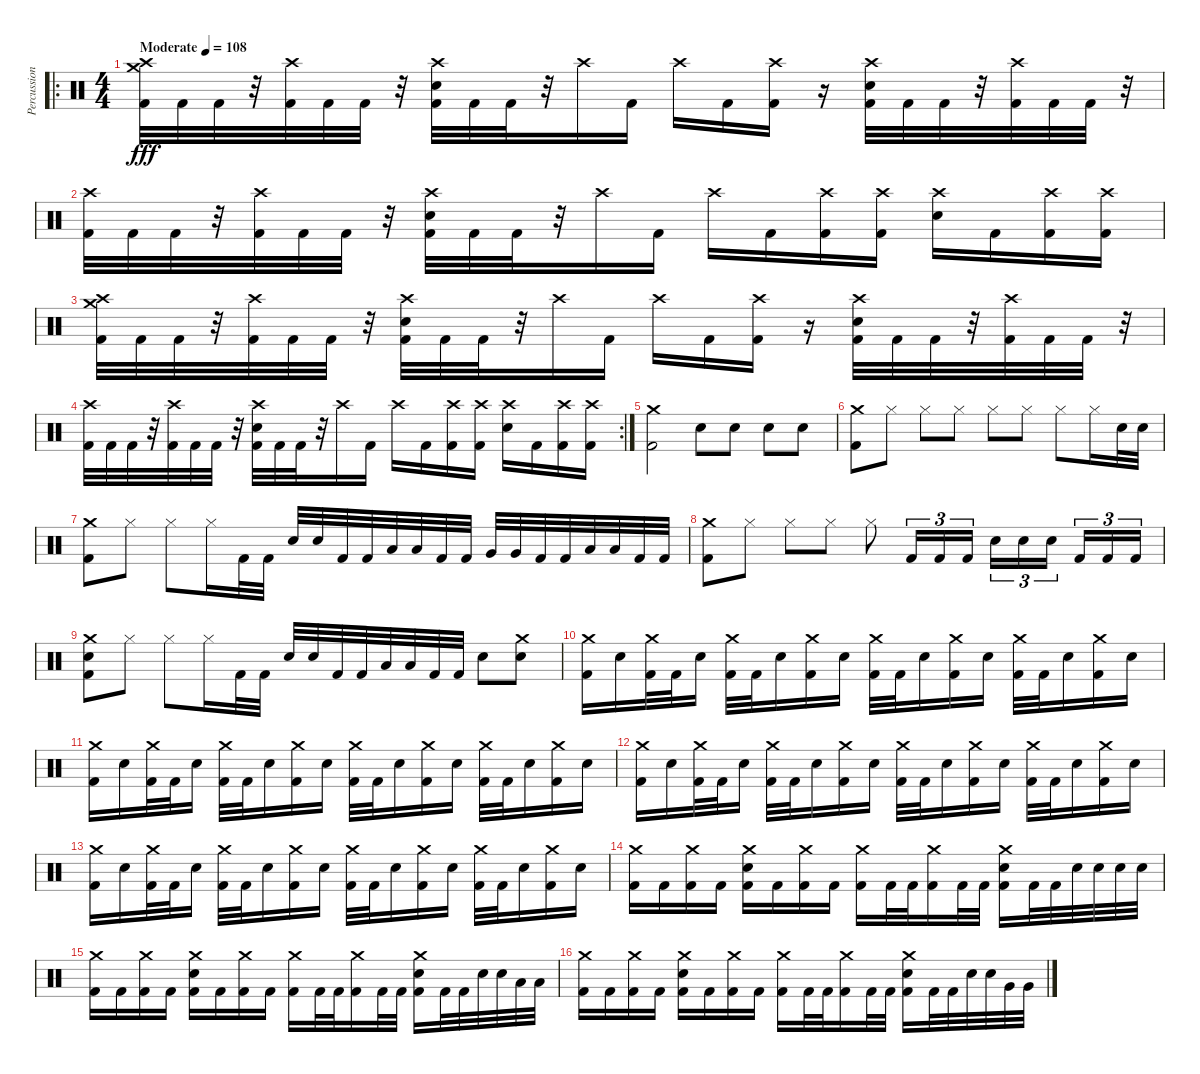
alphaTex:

\track ("Percussion" "Percussion") {instrument percussion}
\staff {score}
\articulation defaults
\ro
\ts (4 4)
\tempo (108 "Moderate")
\clef neutral
\ks c
("Crash medium (hit)" "Crash high (hit)" "Kick (hit) 2").32{dy fff} "Kick (hit) 2".32 "Kick (hit) 2".32 r.32 ("Crash high (hit)" "Kick (hit) 2").32 "Kick (hit) 2".32 "Kick (hit) 2".32 r.32 ("Crash high (hit)" "Electric Snare (hit)" "Kick (hit) 2").32 "Kick (hit) 2".32 "Kick (hit) 2".32 r.32 "Crash high (hit)".16 "Kick (hit) 2".16 "Crash high (hit)".16 "Kick (hit) 2".16 ("Crash high (hit)" "Kick (hit) 2").16 r.16 ("Crash high (hit)" "Electric Snare (hit)" "Kick (hit) 2").32 "Kick (hit) 2".32 "Kick (hit) 2".32 r.32 ("Crash high (hit)" "Kick (hit) 2").32 "Kick (hit) 2".32 "Kick (hit) 2".32 r.32 |
("Crash high (hit)" "Kick (hit) 2").32 "Kick (hit) 2".32 "Kick (hit) 2".32 r.32 ("Crash high (hit)" "Kick (hit) 2").32 "Kick (hit) 2".32 "Kick (hit) 2".32 r.32 ("Crash high (hit)" "Electric Snare (hit)" "Kick (hit) 2").32 "Kick (hit) 2".32 "Kick (hit) 2".32 r.32 "Crash high (hit)".16 "Kick (hit) 2".16 "Crash high (hit)".16 "Kick (hit) 2".16 ("Crash high (hit)" "Kick (hit) 2").16 ("Crash high (hit)" "Kick (hit) 2").16 ("Crash high (hit)" "Electric Snare (hit)").16 "Kick (hit) 2".16 ("Crash high (hit)" "Kick (hit) 2").16 ("Crash high (hit)" "Kick (hit) 2").16 |
("Crash medium (hit)" "Crash high (hit)" "Kick (hit) 2").32 "Kick (hit) 2".32 "Kick (hit) 2".32 r.32 ("Crash high (hit)" "Kick (hit) 2").32 "Kick (hit) 2".32 "Kick (hit) 2".32 r.32 ("Crash high (hit)" "Electric Snare (hit)" "Kick (hit) 2").32 "Kick (hit) 2".32 "Kick (hit) 2".32 r.32 "Crash high (hit)".16 "Kick (hit) 2".16 "Crash high (hit)".16 "Kick (hit) 2".16 ("Crash high (hit)" "Kick (hit) 2").16 r.16 ("Crash high (hit)" "Electric Snare (hit)" "Kick (hit) 2").32 "Kick (hit) 2".32 "Kick (hit) 2".32 r.32 ("Crash high (hit)" "Kick (hit) 2").32 "Kick (hit) 2".32 "Kick (hit) 2".32 r.32 |
\rc 2
("Crash high (hit)" "Kick (hit) 2").32 "Kick (hit) 2".32 "Kick (hit) 2".32 r.32 ("Crash high (hit)" "Kick (hit) 2").32 "Kick (hit) 2".32 "Kick (hit) 2".32 r.32 ("Crash high (hit)" "Electric Snare (hit)" "Kick (hit) 2").32 "Kick (hit) 2".32 "Kick (hit) 2".32 r.32 "Crash high (hit)".16 "Kick (hit) 2".16 "Crash high (hit)".16 "Kick (hit) 2".16 ("Crash high (hit)" "Kick (hit) 2").16 ("Crash high (hit)" "Kick (hit) 2").16 ("Crash high (hit)" "Electric Snare (hit)").16 "Kick (hit) 2".16 ("Crash high (hit)" "Kick (hit) 2").16 ("Crash high (hit)" "Kick (hit) 2").16 |
("Crash medium (hit)" "Kick (hit) 2").2 "Electric Snare (hit)".8 "Electric Snare (hit)".8 "Electric Snare (hit)".8 "Electric Snare (hit)".8 |
("Crash medium (hit)" "Kick (hit) 2").8 "Hi-Hat (closed)".8 "Hi-Hat (closed)".8 "Hi-Hat (closed)".8 "Hi-Hat (closed)".8 "Hi-Hat (closed)".8 "Hi-Hat (closed)".8 "Hi-Hat (closed)".16 "Electric Snare (hit)".32 "Electric Snare (hit)".32 |
("Crash medium (hit)" "Kick (hit) 2").8 "Hi-Hat (closed)".8 "Hi-Hat (closed)".8 "Hi-Hat (closed)".16 "Kick (hit) 2".32 "Kick (hit) 2".32 "Electric Snare (hit)".32 "Electric Snare (hit)".32 "Kick (hit) 2".32 "Kick (hit) 2".32 "Low Tom (hit)".32 "Low Tom (hit)".32 "Kick (hit) 2".32 "Kick (hit) 2".32 "Very Low Tom (hit)".32 "Very Low Tom (hit)".32 "Kick (hit) 2".32 "Kick (hit) 2".32 "Low Floor Tom (hit)".32 "Low Floor Tom (hit)".32 "Kick (hit) 2".32 "Kick (hit) 2".32 |
("Crash medium (hit)" "Kick (hit) 2").8 "Hi-Hat (closed)".8 "Hi-Hat (closed)".8 "Hi-Hat (closed)".8 "Hi-Hat (closed)".8 "Kick (hit) 2".16{tu (3 2)} "Kick (hit) 2".16{tu (3 2)} "Kick (hit) 2".16{tu (3 2)} "Electric Snare (hit)".16{tu (3 2)} "Electric Snare (hit)".16{tu (3 2)} "Electric Snare (hit)".16{tu (3 2) beam splitsecondary} "Kick (hit) 2".16{tu (3 2)} "Kick (hit) 2".16{tu (3 2)} "Kick (hit) 2".16{tu (3 2)} |
("Crash medium (hit)" "Electric Snare (hit)" "Kick (hit) 2").8 "Hi-Hat (closed)".8 "Hi-Hat (closed)".8 "Hi-Hat (closed)".16 "Kick (hit) 2".32 "Kick (hit) 2".32 "Electric Snare (hit)".32 "Electric Snare (hit)".32 "Kick (hit) 2".32 "Kick (hit) 2".32 "Low Tom (hit)".32 "Low Tom (hit)".32 "Kick (hit) 2".32 "Kick (hit) 2".32 "Electric Snare (hit)".8 ("Crash medium (hit)" "Electric Snare (hit)").8 |
("Crash medium (hit)" "Kick (hit) 2").16 "Electric Snare (hit)".16 ("Crash medium (hit)" "Kick (hit) 2").32 "Kick (hit) 2".32 "Electric Snare (hit)".16 ("Crash medium (hit)" "Kick (hit) 2").32 "Kick (hit) 2".32 "Electric Snare (hit)".16 ("Crash medium (hit)" "Kick (hit) 2").16 "Electric Snare (hit)".16 ("Crash medium (hit)" "Kick (hit) 2").32 "Kick (hit) 2".32 "Electric Snare (hit)".16 ("Crash medium (hit)" "Kick (hit) 2").16 "Electric Snare (hit)".16 ("Crash medium (hit)" "Kick (hit) 2").32 "Kick (hit) 2".32 "Electric Snare (hit)".16 ("Crash medium (hit)" "Kick (hit) 2").16 "Electric Snare (hit)".16 |
("Crash medium (hit)" "Kick (hit) 2").16 "Electric Snare (hit)".16 ("Crash medium (hit)" "Kick (hit) 2").32 "Kick (hit) 2".32 "Electric Snare (hit)".16 ("Crash medium (hit)" "Kick (hit) 2").32 "Kick (hit) 2".32 "Electric Snare (hit)".16 ("Crash medium (hit)" "Kick (hit) 2").16 "Electric Snare (hit)".16 ("Crash medium (hit)" "Kick (hit) 2").32 "Kick (hit) 2".32 "Electric Snare (hit)".16 ("Crash medium (hit)" "Kick (hit) 2").16 "Electric Snare (hit)".16 ("Crash medium (hit)" "Kick (hit) 2").32 "Kick (hit) 2".32 "Electric Snare (hit)".16 ("Crash medium (hit)" "Kick (hit) 2").16 "Electric Snare (hit)".16 |
("Crash medium (hit)" "Kick (hit) 2").16 "Electric Snare (hit)".16 ("Crash medium (hit)" "Kick (hit) 2").32 "Kick (hit) 2".32 "Electric Snare (hit)".16 ("Crash medium (hit)" "Kick (hit) 2").32 "Kick (hit) 2".32 "Electric Snare (hit)".16 ("Crash medium (hit)" "Kick (hit) 2").16 "Electric Snare (hit)".16 ("Crash medium (hit)" "Kick (hit) 2").32 "Kick (hit) 2".32 "Electric Snare (hit)".16 ("Crash medium (hit)" "Kick (hit) 2").16 "Electric Snare (hit)".16 ("Crash medium (hit)" "Kick (hit) 2").32 "Kick (hit) 2".32 "Electric Snare (hit)".16 ("Crash medium (hit)" "Kick (hit) 2").16 "Electric Snare (hit)".16 |
("Crash medium (hit)" "Kick (hit) 2").16 "Electric Snare (hit)".16 ("Crash medium (hit)" "Kick (hit) 2").32 "Kick (hit) 2".32 "Electric Snare (hit)".16 ("Crash medium (hit)" "Kick (hit) 2").32 "Kick (hit) 2".32 "Electric Snare (hit)".16 ("Crash medium (hit)" "Kick (hit) 2").16 "Electric Snare (hit)".16 ("Crash medium (hit)" "Kick (hit) 2").32 "Kick (hit) 2".32 "Electric Snare (hit)".16 ("Crash medium (hit)" "Kick (hit) 2").16 "Electric Snare (hit)".16 ("Crash medium (hit)" "Kick (hit) 2").32 "Kick (hit) 2".32 "Electric Snare (hit)".16 ("Crash medium (hit)" "Kick (hit) 2").16 "Electric Snare (hit)".16 |
("Crash medium (hit)" "Kick (hit) 2").16 "Kick (hit) 2".16 ("Crash medium (hit)" "Kick (hit) 2").16 "Kick (hit) 2".16 ("Crash medium (hit)" "Electric Snare (hit)" "Kick (hit) 2").16 "Kick (hit) 2".16 ("Crash medium (hit)" "Kick (hit) 2").16 "Kick (hit) 2".16 ("Crash medium (hit)" "Kick (hit) 2").16 "Kick (hit) 2".32 "Kick (hit) 2".32 ("Crash medium (hit)" "Kick (hit) 2").16 "Kick (hit) 2".32 "Kick (hit) 2".32 ("Crash medium (hit)" "Electric Snare (hit)" "Kick (hit) 2").16 "Kick (hit) 2".32 "Kick (hit) 2".32 "Electric Snare (hit)".32 "Electric Snare (hit)".32 "Electric Snare (hit)".32 "Electric Snare (hit)".32 |
("Crash medium (hit)" "Kick (hit) 2").16 "Kick (hit) 2".16 ("Crash medium (hit)" "Kick (hit) 2").16 "Kick (hit) 2".16 ("Crash medium (hit)" "Electric Snare (hit)" "Kick (hit) 2").16 "Kick (hit) 2".16 ("Crash medium (hit)" "Kick (hit) 2").16 "Kick (hit) 2".16 ("Crash medium (hit)" "Kick (hit) 2").16 "Kick (hit) 2".32 "Kick (hit) 2".32 ("Crash medium (hit)" "Kick (hit) 2").16 "Kick (hit) 2".32 "Kick (hit) 2".32 ("Crash medium (hit)" "Electric Snare (hit)" "Kick (hit) 2").16 "Kick (hit) 2".32 "Kick (hit) 2".32 "Electric Snare (hit)".32 "Electric Snare (hit)".32 "Low Tom (hit)".32 "Low Tom (hit)".32 |
("Crash medium (hit)" "Kick (hit) 2").16 "Kick (hit) 2".16 ("Crash medium (hit)" "Kick (hit) 2").16 "Kick (hit) 2".16 ("Crash medium (hit)" "Electric Snare (hit)" "Kick (hit) 2").16 "Kick (hit) 2".16 ("Crash medium (hit)" "Kick (hit) 2").16 "Kick (hit) 2".16 ("Crash medium (hit)" "Kick (hit) 2").16 "Kick (hit) 2".32 "Kick (hit) 2".32 ("Crash medium (hit)" "Kick (hit) 2").16 "Kick (hit) 2".32 "Kick (hit) 2".32 ("Crash medium (hit)" "Electric Snare (hit)" "Kick (hit) 2").16 "Kick (hit) 2".32 "Kick (hit) 2".32 "Electric Snare (hit)".32 "Electric Snare (hit)".32 "Very Low Tom (hit)".32 "Very Low Tom (hit)".32
